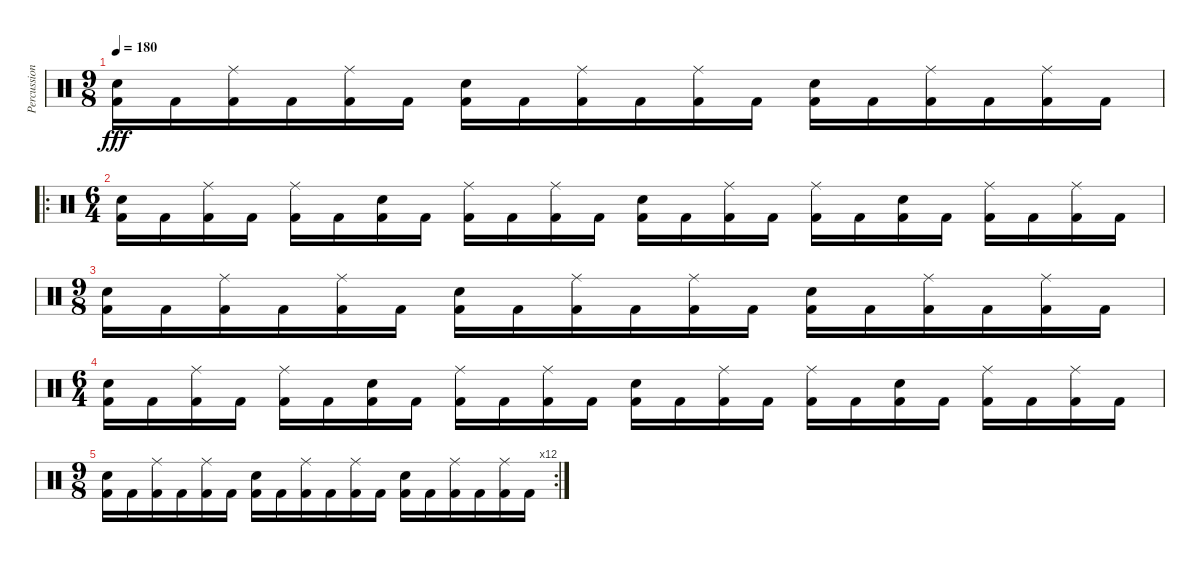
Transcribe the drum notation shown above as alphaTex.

\track ("Percussion" "Percussion") {instrument percussion}
\staff {score}
\articulation defaults
\ts (9 8)
\tempo 180
\clef neutral
\ks c
("Electric Snare (hit)" "Kick (hit) 2").16{dy fff} "Kick (hit) 2".16 ("Ride (middle)" "Kick (hit) 2").16 "Kick (hit) 2".16 ("Ride (middle)" "Kick (hit) 2").16 "Kick (hit) 2".16 ("Electric Snare (hit)" "Kick (hit) 2").16 "Kick (hit) 2".16 ("Ride (middle)" "Kick (hit) 2").16 "Kick (hit) 2".16 ("Ride (middle)" "Kick (hit) 2").16 "Kick (hit) 2".16 ("Electric Snare (hit)" "Kick (hit) 2").16 "Kick (hit) 2".16 ("Ride (middle)" "Kick (hit) 2").16 "Kick (hit) 2".16 ("Ride (middle)" "Kick (hit) 2").16 "Kick (hit) 2".16 |
\ro
\ts (6 4)
("Electric Snare (hit)" "Kick (hit) 2").16 "Kick (hit) 2".16 ("Ride (middle)" "Kick (hit) 2").16 "Kick (hit) 2".16 ("Ride (middle)" "Kick (hit) 2").16 "Kick (hit) 2".16 ("Electric Snare (hit)" "Kick (hit) 2").16 "Kick (hit) 2".16 ("Ride (middle)" "Kick (hit) 2").16 "Kick (hit) 2".16 ("Ride (middle)" "Kick (hit) 2").16 "Kick (hit) 2".16 ("Electric Snare (hit)" "Kick (hit) 2").16 "Kick (hit) 2".16 ("Ride (middle)" "Kick (hit) 2").16 "Kick (hit) 2".16 ("Ride (middle)" "Kick (hit) 2").16 "Kick (hit) 2".16 ("Electric Snare (hit)" "Kick (hit) 2").16 "Kick (hit) 2".16 ("Ride (middle)" "Kick (hit) 2").16 "Kick (hit) 2".16 ("Ride (middle)" "Kick (hit) 2").16 "Kick (hit) 2".16 |
\ts (9 8)
("Electric Snare (hit)" "Kick (hit) 2").16 "Kick (hit) 2".16 ("Ride (middle)" "Kick (hit) 2").16 "Kick (hit) 2".16 ("Ride (middle)" "Kick (hit) 2").16 "Kick (hit) 2".16 ("Electric Snare (hit)" "Kick (hit) 2").16 "Kick (hit) 2".16 ("Ride (middle)" "Kick (hit) 2").16 "Kick (hit) 2".16 ("Ride (middle)" "Kick (hit) 2").16 "Kick (hit) 2".16 ("Electric Snare (hit)" "Kick (hit) 2").16 "Kick (hit) 2".16 ("Ride (middle)" "Kick (hit) 2").16 "Kick (hit) 2".16 ("Ride (middle)" "Kick (hit) 2").16 "Kick (hit) 2".16 |
\ts (6 4)
("Electric Snare (hit)" "Kick (hit) 2").16 "Kick (hit) 2".16 ("Ride (middle)" "Kick (hit) 2").16 "Kick (hit) 2".16 ("Ride (middle)" "Kick (hit) 2").16 "Kick (hit) 2".16 ("Electric Snare (hit)" "Kick (hit) 2").16 "Kick (hit) 2".16 ("Ride (middle)" "Kick (hit) 2").16 "Kick (hit) 2".16 ("Ride (middle)" "Kick (hit) 2").16 "Kick (hit) 2".16 ("Electric Snare (hit)" "Kick (hit) 2").16 "Kick (hit) 2".16 ("Ride (middle)" "Kick (hit) 2").16 "Kick (hit) 2".16 ("Ride (middle)" "Kick (hit) 2").16 "Kick (hit) 2".16 ("Electric Snare (hit)" "Kick (hit) 2").16 "Kick (hit) 2".16 ("Ride (middle)" "Kick (hit) 2").16 "Kick (hit) 2".16 ("Ride (middle)" "Kick (hit) 2").16 "Kick (hit) 2".16 |
\rc 12
\ts (9 8)
("Electric Snare (hit)" "Kick (hit) 2").16 "Kick (hit) 2".16 ("Ride (middle)" "Kick (hit) 2").16 "Kick (hit) 2".16 ("Ride (middle)" "Kick (hit) 2").16 "Kick (hit) 2".16 ("Electric Snare (hit)" "Kick (hit) 2").16 "Kick (hit) 2".16 ("Ride (middle)" "Kick (hit) 2").16 "Kick (hit) 2".16 ("Ride (middle)" "Kick (hit) 2").16 "Kick (hit) 2".16 ("Electric Snare (hit)" "Kick (hit) 2").16 "Kick (hit) 2".16 ("Ride (middle)" "Kick (hit) 2").16 "Kick (hit) 2".16 ("Ride (middle)" "Kick (hit) 2").16 "Kick (hit) 2".16
